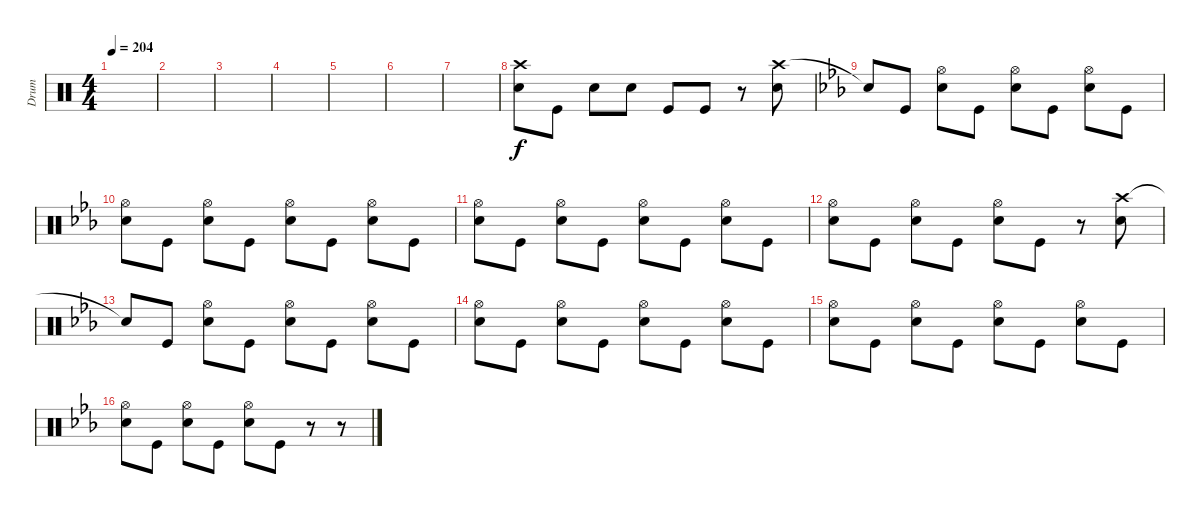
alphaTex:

\track ("Drum" "Drum") {instrument percussion}
\staff {score}
\articulation defaults
\ts (4 4)
\tempo 204
\clef neutral
\ks c
|
|
|
|
|
|
|
("Crash high (hit)" "Snare (hit) 2").8 "Kick (hit)".8 "Snare (hit) 2".8 "Snare (hit) 2".8 "Kick (hit)".8 "Kick (hit)".8 r.8 ("Crash high (hit)" "Snare (hit) 2").8 |
\ks eb "Snare (hit) 2"{t}.8 "Kick (hit)".8
("Hi-Hat (open)" "Snare (hit) 2").8 "Kick (hit)".8 ("Hi-Hat (open)" "Snare (hit) 2").8 "Kick (hit)".8 ("Hi-Hat (open)" "Snare (hit) 2").8 "Kick (hit)".8 |
("Hi-Hat (open)" "Snare (hit) 2").8 "Kick (hit)".8 ("Hi-Hat (open)" "Snare (hit) 2").8 "Kick (hit)".8 ("Hi-Hat (open)" "Snare (hit) 2").8 "Kick (hit)".8 ("Hi-Hat (open)" "Snare (hit) 2").8 "Kick (hit)".8 |
("Hi-Hat (open)" "Snare (hit) 2").8 "Kick (hit)".8 ("Hi-Hat (open)" "Snare (hit) 2").8 "Kick (hit)".8 ("Hi-Hat (open)" "Snare (hit) 2").8 "Kick (hit)".8 ("Hi-Hat (open)" "Snare (hit) 2").8 "Kick (hit)".8 |
("Hi-Hat (open)" "Snare (hit) 2").8 "Kick (hit)".8 ("Hi-Hat (open)" "Snare (hit) 2").8 "Kick (hit)".8 ("Hi-Hat (open)" "Snare (hit) 2").8 "Kick (hit)".8 r.8 ("Crash high (hit)" "Snare (hit) 2").8 |
"Snare (hit) 2"{t}.8 "Kick (hit)".8 ("Hi-Hat (open)" "Snare (hit) 2").8 "Kick (hit)".8 ("Hi-Hat (open)" "Snare (hit) 2").8 "Kick (hit)".8 ("Hi-Hat (open)" "Snare (hit) 2").8 "Kick (hit)".8 |
("Hi-Hat (open)" "Snare (hit) 2").8 "Kick (hit)".8 ("Hi-Hat (open)" "Snare (hit) 2").8 "Kick (hit)".8 ("Hi-Hat (open)" "Snare (hit) 2").8 "Kick (hit)".8 ("Hi-Hat (open)" "Snare (hit) 2").8 "Kick (hit)".8 |
("Hi-Hat (open)" "Snare (hit) 2").8 "Kick (hit)".8 ("Hi-Hat (open)" "Snare (hit) 2").8 "Kick (hit)".8 ("Hi-Hat (open)" "Snare (hit) 2").8 "Kick (hit)".8 ("Hi-Hat (open)" "Snare (hit) 2").8 "Kick (hit)".8 |
("Hi-Hat (open)" "Snare (hit) 2").8 "Kick (hit)".8 ("Hi-Hat (open)" "Snare (hit) 2").8 "Kick (hit)".8 ("Hi-Hat (open)" "Snare (hit) 2").8 "Kick (hit)".8 r.8 r.8
